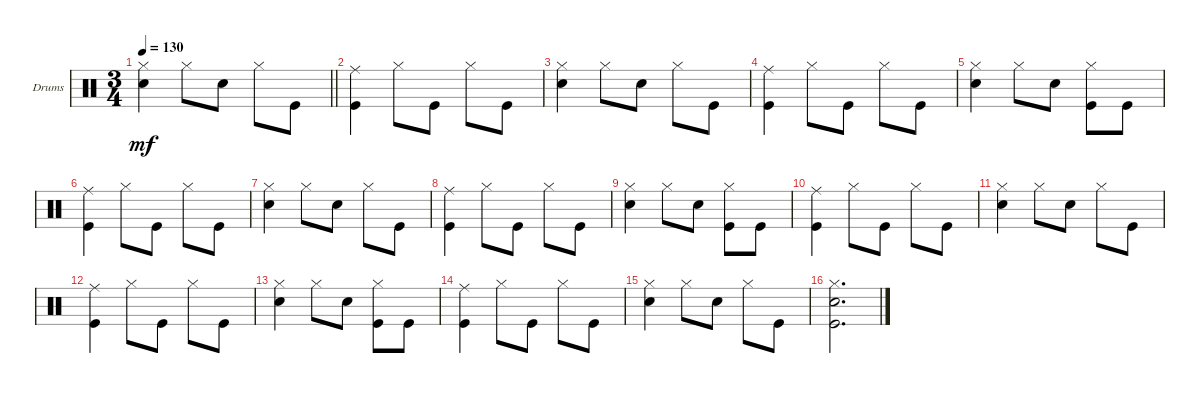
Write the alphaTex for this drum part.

\defaultSystemsLayout 4
\bracketExtendMode groupsimilarinstruments
\firstSystemTrackNameOrientation horizontal
\otherSystemsTrackNameOrientation horizontal
\chordDiagramsInScore
\track ("Drumkit" "Drums") {instrument percussion}
\staff {score}
\articulation defaults
\ts (3 4)
\tempo 130
\clef neutral
\barLineRight lightlight
\ks c
("Hi-Hat (closed)" "Snare (hit) 2").4{dy mf} "Hi-Hat (closed)".8 "Snare (hit) 2".8 "Hi-Hat (closed)".8 "Kick (hit)".8 |
("Kick (hit)" "Ride (middle)").4 "Hi-Hat (closed)".8 "Kick (hit)".8 "Hi-Hat (closed)".8 "Kick (hit)".8 |
("Hi-Hat (closed)" "Snare (hit) 2").4 "Hi-Hat (closed)".8 "Snare (hit) 2".8 "Hi-Hat (closed)".8 "Kick (hit)".8 |
("Kick (hit)" "Ride (middle)").4 "Hi-Hat (closed)".8 "Kick (hit)".8 "Hi-Hat (closed)".8 "Kick (hit)".8 |
("Hi-Hat (closed)" "Snare (hit) 2").4 "Hi-Hat (closed)".8 "Snare (hit) 2".8 ("Kick (hit)" "Hi-Hat (closed)").8 "Kick (hit)".8 |
("Kick (hit)" "Ride (middle)").4 "Hi-Hat (closed)".8 "Kick (hit)".8 "Hi-Hat (closed)".8 "Kick (hit)".8 |
("Hi-Hat (closed)" "Snare (hit) 2").4 "Hi-Hat (closed)".8 "Snare (hit) 2".8 "Hi-Hat (closed)".8 "Kick (hit)".8 |
("Kick (hit)" "Ride (middle)").4 "Hi-Hat (closed)".8 "Kick (hit)".8 "Hi-Hat (closed)".8 "Kick (hit)".8 |
("Hi-Hat (closed)" "Snare (hit) 2").4 "Hi-Hat (closed)".8 "Snare (hit) 2".8 ("Kick (hit)" "Hi-Hat (closed)").8 "Kick (hit)".8 |
("Kick (hit)" "Ride (middle)").4 "Hi-Hat (closed)".8 "Kick (hit)".8 "Hi-Hat (closed)".8 "Kick (hit)".8 |
("Hi-Hat (closed)" "Snare (hit) 2").4 "Hi-Hat (closed)".8 "Snare (hit) 2".8 "Hi-Hat (closed)".8 "Kick (hit)".8 |
("Kick (hit)" "Ride (middle)").4 "Hi-Hat (closed)".8 "Kick (hit)".8 "Hi-Hat (closed)".8 "Kick (hit)".8 |
("Hi-Hat (closed)" "Snare (hit) 2").4 "Hi-Hat (closed)".8 "Snare (hit) 2".8 ("Kick (hit)" "Hi-Hat (closed)").8 "Kick (hit)".8 |
("Kick (hit)" "Ride (middle)").4 "Hi-Hat (closed)".8 "Kick (hit)".8 "Hi-Hat (closed)".8 "Kick (hit)".8 |
("Hi-Hat (closed)" "Snare (hit) 2").4 "Hi-Hat (closed)".8 "Snare (hit) 2".8 "Hi-Hat (closed)".8 "Kick (hit)".8 |
("Hi-Hat (closed)" "Snare (hit) 2" "Kick (hit)").2{d}
